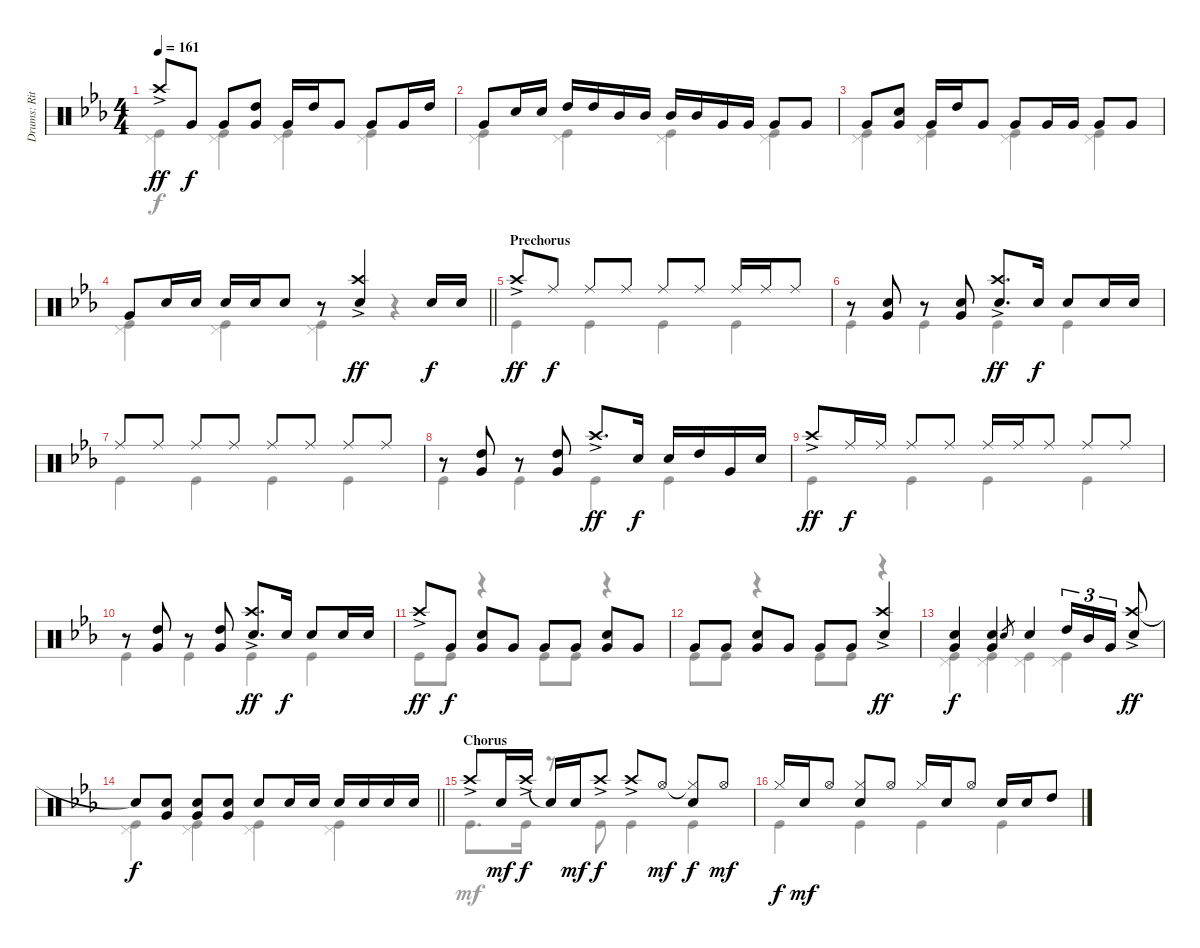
\track ("Drums: Ritsu Tianaka" "Drums: Rit") {instrument percussion}
\staff {score}
\articulation defaults
\voice
\ts (4 4)
\tempo 161
\clef neutral
\ks eb "Crash high (hit)"{ac}.8{dy ff} "Very Low Tom (hit)".8{dy f} "Very Low Tom (hit)".8
("High Tom (hit)" "Very Low Tom (hit)").8 "Very Low Tom (hit)".16 "High Tom (hit)".16 "Very Low Tom (hit)".8 "Very Low Tom (hit)".8 "Very Low Tom (hit)".16 "High Tom (hit)".16 |
"Very Low Tom (hit)".8 "Snare (hit) 2".16 "Snare (hit) 2".16 "High Tom (hit)".16 "High Tom (hit)".16 "Mid Tom (hit)".16 "Mid Tom (hit)".16 "Mid Tom (hit)".16 "Mid Tom (hit)".16 "Very Low Tom (hit)".16 "Very Low Tom (hit)".16 "Very Low Tom (hit)".8 "Very Low Tom (hit)".8 |
"Very Low Tom (hit)".8 ("Snare (hit) 2" "Very Low Tom (hit)").8 "Very Low Tom (hit)".16 "High Tom (hit)".16 "Very Low Tom (hit)".8 "Very Low Tom (hit)".8 "Very Low Tom (hit)".16 "Very Low Tom (hit)".16 "Very Low Tom (hit)".8 "Very Low Tom (hit)".8 |
\barLineRight lightlight "Very Low Tom (hit)".8 "Snare (hit) 2".16 "Snare (hit) 2".16 "Snare (hit) 2".16 "Snare (hit) 2".16 "Snare (hit) 2".8
r.8 ("Crash high (hit)"{ac} "Snare (hit) 2").4{dy ff} "Snare (hit) 2".16{dy f} "Snare (hit) 2".16 |
\section ("" "Prechorus")
"Crash high (hit)"{ac}.8{dy ff} "Ride (middle)".8{dy f} "Ride (middle)".8 "Ride (middle)".8 "Ride (middle)".8 "Ride (middle)".8 "Ride (middle)".16 "Ride (middle)".16 "Ride (middle)".8 |
r.8 ("Snare (hit) 2" "Very Low Tom (hit)").8 r.8 ("Snare (hit) 2" "Very Low Tom (hit)").8 ("Crash high (hit)"{ac} "Snare (hit) 2").8{d dy ff} "Snare (hit) 2".16{dy f} "Snare (hit) 2".8 "Snare (hit) 2".16 "Snare (hit) 2".16 |
"Ride (middle)".8 "Ride (middle)".8 "Ride (middle)".8 "Ride (middle)".8 "Ride (middle)".8 "Ride (middle)".8 "Ride (middle)".8 "Ride (middle)".8 |
r.8 ("High Tom (hit)" "Very Low Tom (hit)").8 r.8 ("High Tom (hit)" "Very Low Tom (hit)").8 "Crash high (hit)"{ac}.8{d dy ff} "Snare (hit) 2".16{dy f} "Snare (hit) 2".16 "High Tom (hit)".16 "Very Low Tom (hit)".16 "Snare (hit) 2".16 |
"Crash high (hit)"{ac}.8{dy ff} "Ride (middle)".16{dy f} "Ride (middle)".16 "Ride (middle)".8 "Ride (middle)".8 "Ride (middle)".16 "Ride (middle)".16 "Ride (middle)".8 "Ride (middle)".8 "Ride (middle)".8 |
r.8 ("High Tom (hit)" "Very Low Tom (hit)").8 r.8 ("High Tom (hit)" "Very Low Tom (hit)").8 ("Crash high (hit)"{ac} "Snare (hit) 2").8{d dy ff} "Snare (hit) 2".16{dy f} "Snare (hit) 2".8 "Snare (hit) 2".16 "Snare (hit) 2".16 |
"Crash high (hit)"{ac}.8{dy ff} "Very Low Tom (hit)".8{dy f} ("Snare (hit) 2" "Very Low Tom (hit)").8 "Very Low Tom (hit)".8 "Very Low Tom (hit)".8 "Very Low Tom (hit)".8 ("Snare (hit) 2" "Very Low Tom (hit)").8 "Very Low Tom (hit)".8 |
"Very Low Tom (hit)".8 "Very Low Tom (hit)".8 ("Snare (hit) 2" "Very Low Tom (hit)").8 "Very Low Tom (hit)".8 "Very Low Tom (hit)".8 "Very Low Tom (hit)".8 ("Crash high (hit)"{ac} "Snare (hit) 2").4{dy ff} |
("Snare (hit) 2" "Very Low Tom (hit)").4{dy f} ("Snare (hit) 2" "Very Low Tom (hit)").4 "Snare (hit) 2".8{gr} "Snare (hit) 2".4 "High Tom (hit)".16{tu (3 2)} "Mid Tom (hit)".16{tu (3 2)} "Very Low Tom (hit)".16{tu (3 2)} ("Crash high (hit)"{ac} "Snare (hit) 2").8{dy ff} |
\barLineRight lightlight "Snare (hit)"{t}.8{dy f}
("Snare (hit) 2" "Very Low Tom (hit)").8 ("Snare (hit) 2" "Very Low Tom (hit)").8 ("Snare (hit) 2" "Very Low Tom (hit)").8 "Snare (hit) 2".8 "Snare (hit) 2".16 "Snare (hit) 2".16 "Snare (hit) 2".16 "Snare (hit) 2".16 "Snare (hit) 2".16 "Snare (hit) 2".16 |
\section ("" "Chorus")
"Crash high (hit)"{ac}.8 "Snare (hit) 2".16{dy mf} "Crash high (hit)"{ac}.16{dy f} "Snare (hit)"{t}.16 "Snare (hit) 2".16{dy mf} "Crash high (hit)"{ac}.8{dy f} "Crash high (hit)"{ac}.8 "Hi-Hat (open)".8{dy mf} ("Hi-Hat (closed)"{t} "Snare (hit) 2").8{dy f} "Hi-Hat (open)".8{dy mf} |
"Hi-Hat (closed)".16{dy f} "Snare (hit) 2".16{dy mf} "Hi-Hat (open)".8 ("Hi-Hat (closed)" "Snare (hit) 2").8 "Hi-Hat (open)".8 "Hi-Hat (closed)".16 "Snare (hit) 2".16 "Hi-Hat (open)".8 "Snare (hit) 2".16 "Snare (hit) 2".16 "High Tom (hit)".8
\voice
\clef neutral
\ottava regular
\simile none
\ks eb
("Pedal Hi-Hat (hit)" "Kick (hit)").4{dy f} ("Pedal Hi-Hat (hit)" "Kick (hit)").4 ("Pedal Hi-Hat (hit)" "Kick (hit)").4 ("Pedal Hi-Hat (hit)" "Kick (hit)").4 |
("Pedal Hi-Hat (hit)" "Kick (hit)").4 ("Pedal Hi-Hat (hit)" "Kick (hit)").4 ("Pedal Hi-Hat (hit)" "Kick (hit)").4 ("Pedal Hi-Hat (hit)" "Kick (hit)").4 |
("Pedal Hi-Hat (hit)" "Kick (hit)").4 ("Pedal Hi-Hat (hit)" "Kick (hit)").4 ("Pedal Hi-Hat (hit)" "Kick (hit)").4 ("Pedal Hi-Hat (hit)" "Kick (hit)").4 |
\barLineRight lightlight
("Pedal Hi-Hat (hit)" "Kick (hit)").4 ("Pedal Hi-Hat (hit)" "Kick (hit)").4 ("Pedal Hi-Hat (hit)" "Kick (hit)").4 r.4 |
"Kick (hit)".4 "Kick (hit)".4 "Kick (hit)".4 "Kick (hit)".4 |
"Kick (hit)".4 "Kick (hit)".4 "Kick (hit)".4 "Kick (hit)".4 |
"Kick (hit)".4 "Kick (hit)".4 "Kick (hit)".4 "Kick (hit)".4 |
"Kick (hit)".4 "Kick (hit)".4 "Kick (hit)".4 "Kick (hit)".4 |
"Kick (hit)".4 "Kick (hit)".4 "Kick (hit)".4 "Kick (hit)".4 |
"Kick (hit)".4 "Kick (hit)".4 "Kick (hit)".4 "Kick (hit)".4 |
"Kick (hit)".8 "Kick (hit)".8 r.4 "Kick (hit)".8 "Kick (hit)".8 r.4 |
"Kick (hit)".8 "Kick (hit)".8 r.4 "Kick (hit)".8 "Kick (hit)".8 r.4 |
("Pedal Hi-Hat (hit)" "Kick (hit)").4 ("Pedal Hi-Hat (hit)" "Kick (hit)").4 ("Pedal Hi-Hat (hit)" "Kick (hit)").4 ("Pedal Hi-Hat (hit)" "Kick (hit)").4 |
\barLineRight lightlight
("Pedal Hi-Hat (hit)" "Kick (hit)").4 ("Pedal Hi-Hat (hit)" "Kick (hit)").4 ("Pedal Hi-Hat (hit)" "Kick (hit)").4 ("Pedal Hi-Hat (hit)" "Kick (hit)").4 |
"Kick (hit)".8{d dy mf} "Kick (hit)".16 r.8 "Kick (hit)".8 "Kick (hit)".4 "Kick (hit)".4 |
"Kick (hit)".4 "Kick (hit)".4 "Kick (hit)".4 "Kick (hit)".4
